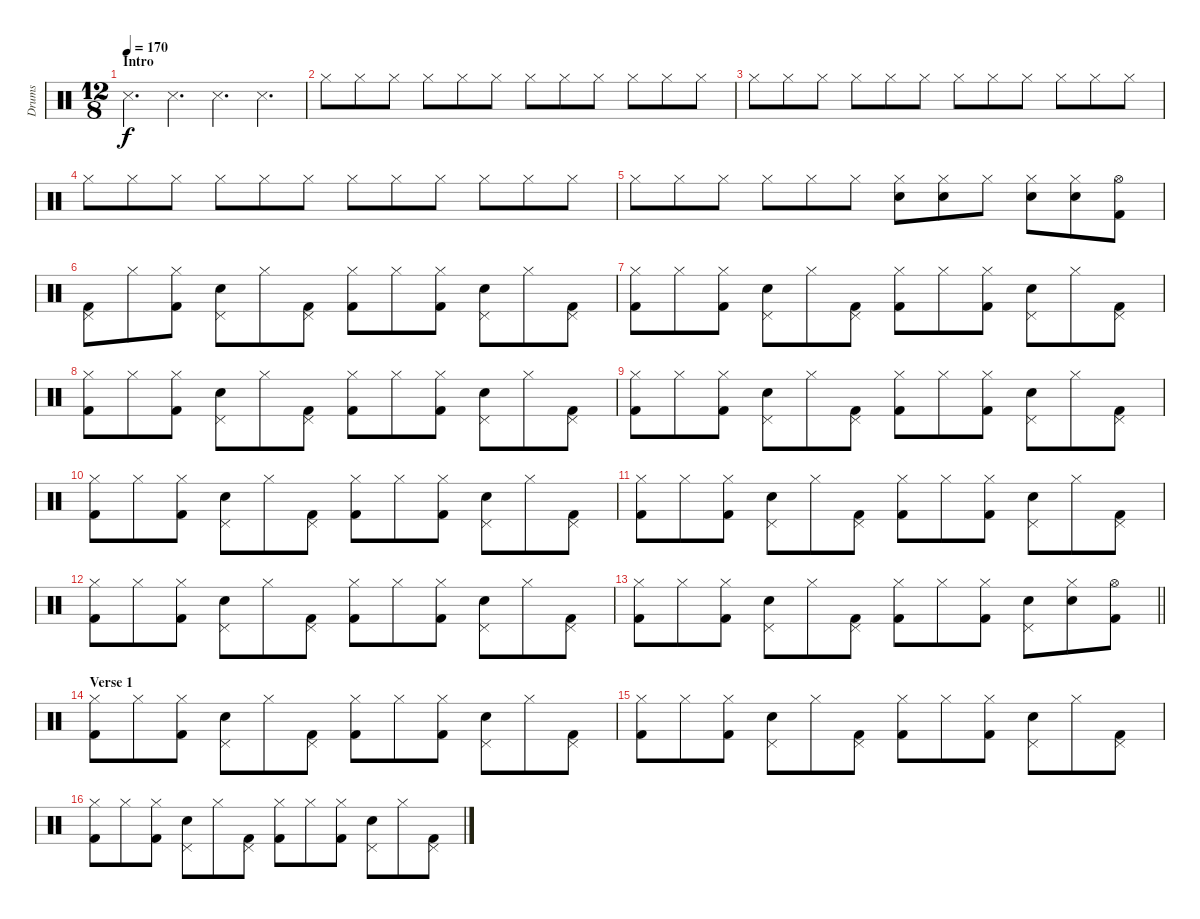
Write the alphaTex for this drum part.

\track ("Drums" "Drums") {instrument percussion}
\staff {score}
\articulation defaults
\ts (12 8)
\section ("" "Intro")
\tempo 170
\clef neutral
\ks c "Metronome (hit)".4{d dy f} "Metronome (hit)".4{d} "Metronome (hit)".4{d} "Metronome (hit)".4{d}
|
"Hi-Hat (closed)".8 "Hi-Hat (closed)".8 "Hi-Hat (closed)".8 "Hi-Hat (closed)".8 "Hi-Hat (closed)".8 "Hi-Hat (closed)".8 "Hi-Hat (closed)".8 "Hi-Hat (closed)".8 "Hi-Hat (closed)".8 "Hi-Hat (closed)".8 "Hi-Hat (closed)".8 "Hi-Hat (closed)".8 |
"Hi-Hat (closed)".8 "Hi-Hat (closed)".8 "Hi-Hat (closed)".8 "Hi-Hat (closed)".8 "Hi-Hat (closed)".8 "Hi-Hat (closed)".8 "Hi-Hat (closed)".8 "Hi-Hat (closed)".8 "Hi-Hat (closed)".8 "Hi-Hat (closed)".8 "Hi-Hat (closed)".8 "Hi-Hat (closed)".8 |
"Hi-Hat (closed)".8 "Hi-Hat (closed)".8 "Hi-Hat (closed)".8 "Hi-Hat (closed)".8 "Hi-Hat (closed)".8 "Hi-Hat (closed)".8 "Hi-Hat (closed)".8 "Hi-Hat (closed)".8 "Hi-Hat (closed)".8 "Hi-Hat (closed)".8 "Hi-Hat (closed)".8 "Hi-Hat (closed)".8 |
"Hi-Hat (closed)".8 "Hi-Hat (closed)".8 "Hi-Hat (closed)".8 "Hi-Hat (closed)".8 "Hi-Hat (closed)".8 "Hi-Hat (closed)".8 ("Snare (hit) 2" "Hi-Hat (closed)").8 ("Snare (hit) 2" "Hi-Hat (closed)").8 "Hi-Hat (closed)".8 ("Snare (hit) 2" "Hi-Hat (closed)").8 ("Snare (hit) 2" "Hi-Hat (closed)").8 ("Kick (hit) 2" "Hi-Hat (open)").8 |
("Kick (hit) 2" "Pedal Hi-Hat (hit)").8 "Hi-Hat (closed)".8 ("Kick (hit) 2" "Hi-Hat (closed)").8 ("Snare (hit) 2" "Pedal Hi-Hat (hit)").8 "Hi-Hat (closed)".8 ("Kick (hit) 2" "Pedal Hi-Hat (hit)").8 ("Kick (hit) 2" "Hi-Hat (closed)").8 "Hi-Hat (closed)".8 ("Kick (hit) 2" "Hi-Hat (closed)").8 ("Snare (hit) 2" "Pedal Hi-Hat (hit)").8 "Hi-Hat (closed)".8 ("Kick (hit) 2" "Pedal Hi-Hat (hit)").8 |
("Kick (hit) 2" "Hi-Hat (closed)").8 "Hi-Hat (closed)".8 ("Kick (hit) 2" "Hi-Hat (closed)").8 ("Snare (hit) 2" "Pedal Hi-Hat (hit)").8 "Hi-Hat (closed)".8 ("Kick (hit) 2" "Pedal Hi-Hat (hit)").8 ("Kick (hit) 2" "Hi-Hat (closed)").8 "Hi-Hat (closed)".8 ("Kick (hit) 2" "Hi-Hat (closed)").8 ("Snare (hit) 2" "Pedal Hi-Hat (hit)").8 "Hi-Hat (closed)".8 ("Kick (hit) 2" "Pedal Hi-Hat (hit)").8 |
("Kick (hit) 2" "Hi-Hat (closed)").8 "Hi-Hat (closed)".8 ("Kick (hit) 2" "Hi-Hat (closed)").8 ("Snare (hit) 2" "Pedal Hi-Hat (hit)").8 "Hi-Hat (closed)".8 ("Kick (hit) 2" "Pedal Hi-Hat (hit)").8 ("Kick (hit) 2" "Hi-Hat (closed)").8 "Hi-Hat (closed)".8 ("Kick (hit) 2" "Hi-Hat (closed)").8 ("Snare (hit) 2" "Pedal Hi-Hat (hit)").8 "Hi-Hat (closed)".8 ("Kick (hit) 2" "Pedal Hi-Hat (hit)").8 |
("Kick (hit) 2" "Hi-Hat (closed)").8 "Hi-Hat (closed)".8 ("Kick (hit) 2" "Hi-Hat (closed)").8 ("Snare (hit) 2" "Pedal Hi-Hat (hit)").8 "Hi-Hat (closed)".8 ("Kick (hit) 2" "Pedal Hi-Hat (hit)").8 ("Kick (hit) 2" "Hi-Hat (closed)").8 "Hi-Hat (closed)".8 ("Kick (hit) 2" "Hi-Hat (closed)").8 ("Snare (hit) 2" "Pedal Hi-Hat (hit)").8 "Hi-Hat (closed)".8 ("Kick (hit) 2" "Pedal Hi-Hat (hit)").8 |
("Kick (hit) 2" "Hi-Hat (closed)").8 "Hi-Hat (closed)".8 ("Kick (hit) 2" "Hi-Hat (closed)").8 ("Snare (hit) 2" "Pedal Hi-Hat (hit)").8 "Hi-Hat (closed)".8 ("Kick (hit) 2" "Pedal Hi-Hat (hit)").8 ("Kick (hit) 2" "Hi-Hat (closed)").8 "Hi-Hat (closed)".8 ("Kick (hit) 2" "Hi-Hat (closed)").8 ("Snare (hit) 2" "Pedal Hi-Hat (hit)").8 "Hi-Hat (closed)".8 ("Kick (hit) 2" "Pedal Hi-Hat (hit)").8 |
("Kick (hit) 2" "Hi-Hat (closed)").8 "Hi-Hat (closed)".8 ("Kick (hit) 2" "Hi-Hat (closed)").8 ("Snare (hit) 2" "Pedal Hi-Hat (hit)").8 "Hi-Hat (closed)".8 ("Kick (hit) 2" "Pedal Hi-Hat (hit)").8 ("Kick (hit) 2" "Hi-Hat (closed)").8 "Hi-Hat (closed)".8 ("Kick (hit) 2" "Hi-Hat (closed)").8 ("Snare (hit) 2" "Pedal Hi-Hat (hit)").8 "Hi-Hat (closed)".8 ("Kick (hit) 2" "Pedal Hi-Hat (hit)").8 |
("Kick (hit) 2" "Hi-Hat (closed)").8 "Hi-Hat (closed)".8 ("Kick (hit) 2" "Hi-Hat (closed)").8 ("Snare (hit) 2" "Pedal Hi-Hat (hit)").8 "Hi-Hat (closed)".8 ("Kick (hit) 2" "Pedal Hi-Hat (hit)").8 ("Kick (hit) 2" "Hi-Hat (closed)").8 "Hi-Hat (closed)".8 ("Kick (hit) 2" "Hi-Hat (closed)").8 ("Snare (hit) 2" "Pedal Hi-Hat (hit)").8 "Hi-Hat (closed)".8 ("Kick (hit) 2" "Pedal Hi-Hat (hit)").8 |
\barLineRight lightlight
("Kick (hit) 2" "Hi-Hat (closed)").8 "Hi-Hat (closed)".8 ("Kick (hit) 2" "Hi-Hat (closed)").8 ("Snare (hit) 2" "Pedal Hi-Hat (hit)").8 "Hi-Hat (closed)".8 ("Kick (hit) 2" "Pedal Hi-Hat (hit)").8 ("Kick (hit) 2" "Hi-Hat (closed)").8 "Hi-Hat (closed)".8 ("Kick (hit) 2" "Hi-Hat (closed)").8 ("Snare (hit) 2" "Pedal Hi-Hat (hit)").8 ("Snare (hit) 2" "Hi-Hat (closed)").8 ("Kick (hit) 2" "Hi-Hat (open)").8 |
\section ("" "Verse 1")
("Kick (hit) 2" "Hi-Hat (closed)").8 "Hi-Hat (closed)".8 ("Kick (hit) 2" "Hi-Hat (closed)").8 ("Snare (hit) 2" "Pedal Hi-Hat (hit)").8 "Hi-Hat (closed)".8 ("Kick (hit) 2" "Pedal Hi-Hat (hit)").8 ("Kick (hit) 2" "Hi-Hat (closed)").8 "Hi-Hat (closed)".8 ("Kick (hit) 2" "Hi-Hat (closed)").8 ("Snare (hit) 2" "Pedal Hi-Hat (hit)").8 "Hi-Hat (closed)".8 ("Kick (hit) 2" "Pedal Hi-Hat (hit)").8 |
("Kick (hit) 2" "Hi-Hat (closed)").8 "Hi-Hat (closed)".8 ("Kick (hit) 2" "Hi-Hat (closed)").8 ("Snare (hit) 2" "Pedal Hi-Hat (hit)").8 "Hi-Hat (closed)".8 ("Kick (hit) 2" "Pedal Hi-Hat (hit)").8 ("Kick (hit) 2" "Hi-Hat (closed)").8 "Hi-Hat (closed)".8 ("Kick (hit) 2" "Hi-Hat (closed)").8 ("Snare (hit) 2" "Pedal Hi-Hat (hit)").8 "Hi-Hat (closed)".8 ("Kick (hit) 2" "Pedal Hi-Hat (hit)").8 |
("Kick (hit) 2" "Hi-Hat (closed)").8 "Hi-Hat (closed)".8 ("Kick (hit) 2" "Hi-Hat (closed)").8 ("Snare (hit) 2" "Pedal Hi-Hat (hit)").8 "Hi-Hat (closed)".8 ("Kick (hit) 2" "Pedal Hi-Hat (hit)").8 ("Kick (hit) 2" "Hi-Hat (closed)").8 "Hi-Hat (closed)".8 ("Kick (hit) 2" "Hi-Hat (closed)").8 ("Snare (hit) 2" "Pedal Hi-Hat (hit)").8 "Hi-Hat (closed)".8 ("Kick (hit) 2" "Pedal Hi-Hat (hit)").8
